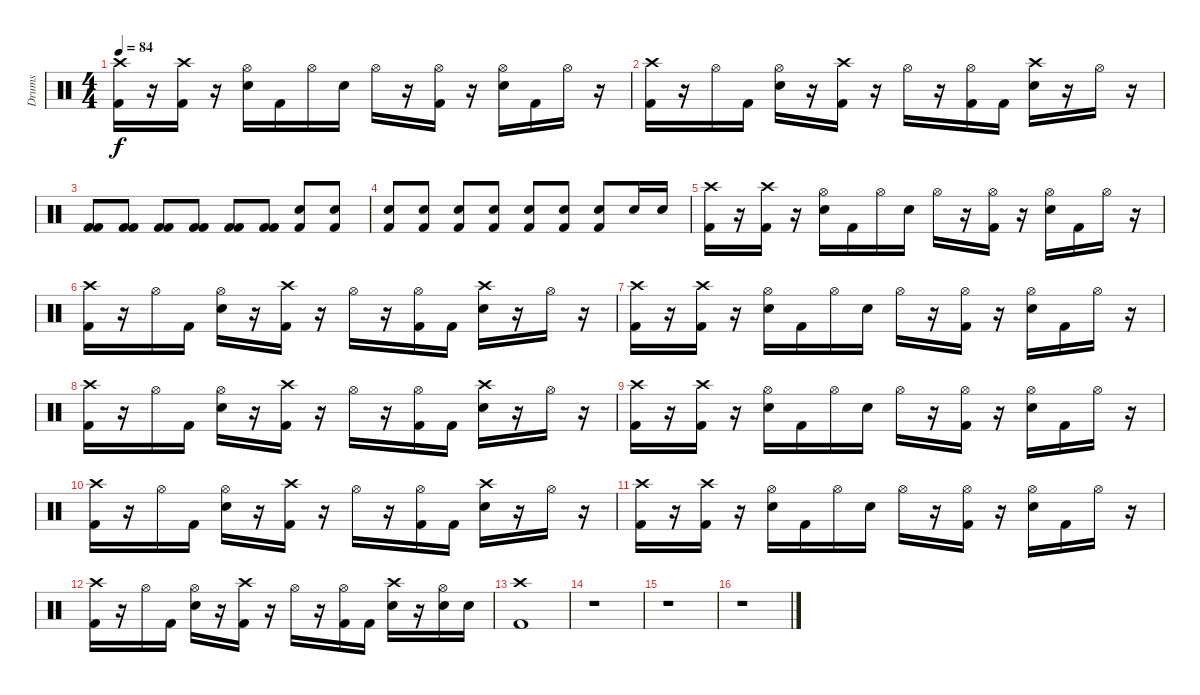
\track ("Drums" "Drums") {instrument percussion}
\staff {score}
\articulation defaults
\ts (4 4)
\tempo 84
\clef neutral
\ks c
("Crash high (hit)" "Kick (hit) 2").16{dy f} r.16 ("Crash high (hit)" "Kick (hit) 2").16 r.16 ("Hi-Hat (open)" "Snare (hit) 2").16 "Kick (hit) 2".16 "Hi-Hat (open)".16 "Snare (hit) 2".16 "Hi-Hat (open)".16 r.16 ("Hi-Hat (open)" "Kick (hit) 2").16 r.16 ("Hi-Hat (open)" "Snare (hit) 2").16 "Kick (hit) 2".16 "Hi-Hat (open)".16 r.16 |
("Crash high (hit)" "Kick (hit) 2").16 r.16 "Hi-Hat (open)".16 "Kick (hit) 2".16 ("Hi-Hat (open)" "Snare (hit) 2").16 r.16 ("Crash high (hit)" "Kick (hit) 2").16 r.16 "Hi-Hat (open)".16 r.16 ("Hi-Hat (open)" "Kick (hit) 2").16 "Kick (hit) 2".16 ("Crash high (hit)" "Snare (hit) 2").16 r.16 "Hi-Hat (open)".16 r.16 |
("Kick (hit) 2" "Kick (hit) 2").8 ("Kick (hit) 2" "Kick (hit) 2").8 ("Kick (hit) 2" "Kick (hit) 2").8 ("Kick (hit) 2" "Kick (hit) 2").8 ("Kick (hit) 2" "Kick (hit) 2").8 ("Kick (hit) 2" "Kick (hit) 2").8 ("Snare (hit) 2" "Kick (hit) 2").8 ("Snare (hit) 2" "Kick (hit) 2").8 |
("Snare (hit) 2" "Kick (hit) 2").8 ("Snare (hit) 2" "Kick (hit) 2").8 ("Snare (hit) 2" "Kick (hit) 2").8 ("Snare (hit) 2" "Kick (hit) 2").8 ("Snare (hit) 2" "Kick (hit) 2").8 ("Snare (hit) 2" "Kick (hit) 2").8 ("Snare (hit) 2" "Kick (hit) 2").8 "Snare (hit) 2".16 "Snare (hit) 2".16 |
("Crash high (hit)" "Kick (hit) 2").16 r.16 ("Crash high (hit)" "Kick (hit) 2").16 r.16 ("Hi-Hat (open)" "Snare (hit) 2").16 "Kick (hit) 2".16 "Hi-Hat (open)".16 "Snare (hit) 2".16 "Hi-Hat (open)".16 r.16 ("Hi-Hat (open)" "Kick (hit) 2").16 r.16 ("Hi-Hat (open)" "Snare (hit) 2").16 "Kick (hit) 2".16 "Hi-Hat (open)".16 r.16 |
("Crash high (hit)" "Kick (hit) 2").16 r.16 "Hi-Hat (open)".16 "Kick (hit) 2".16 ("Hi-Hat (open)" "Snare (hit) 2").16 r.16 ("Crash high (hit)" "Kick (hit) 2").16 r.16 "Hi-Hat (open)".16 r.16 ("Hi-Hat (open)" "Kick (hit) 2").16 "Kick (hit) 2".16 ("Crash high (hit)" "Snare (hit) 2").16 r.16 "Hi-Hat (open)".16 r.16 |
("Crash high (hit)" "Kick (hit) 2").16 r.16 ("Crash high (hit)" "Kick (hit) 2").16 r.16 ("Hi-Hat (open)" "Snare (hit) 2").16 "Kick (hit) 2".16 "Hi-Hat (open)".16 "Snare (hit) 2".16 "Hi-Hat (open)".16 r.16 ("Hi-Hat (open)" "Kick (hit) 2").16 r.16 ("Hi-Hat (open)" "Snare (hit) 2").16 "Kick (hit) 2".16 "Hi-Hat (open)".16 r.16 |
("Crash high (hit)" "Kick (hit) 2").16 r.16 "Hi-Hat (open)".16 "Kick (hit) 2".16 ("Hi-Hat (open)" "Snare (hit) 2").16 r.16 ("Crash high (hit)" "Kick (hit) 2").16 r.16 "Hi-Hat (open)".16 r.16 ("Hi-Hat (open)" "Kick (hit) 2").16 "Kick (hit) 2".16 ("Crash high (hit)" "Snare (hit) 2").16 r.16 "Hi-Hat (open)".16 r.16 |
("Crash high (hit)" "Kick (hit) 2").16 r.16 ("Crash high (hit)" "Kick (hit) 2").16 r.16 ("Hi-Hat (open)" "Snare (hit) 2").16 "Kick (hit) 2".16 "Hi-Hat (open)".16 "Snare (hit) 2".16 "Hi-Hat (open)".16 r.16 ("Hi-Hat (open)" "Kick (hit) 2").16 r.16 ("Hi-Hat (open)" "Snare (hit) 2").16 "Kick (hit) 2".16 "Hi-Hat (open)".16 r.16 |
("Crash high (hit)" "Kick (hit) 2").16 r.16 "Hi-Hat (open)".16 "Kick (hit) 2".16 ("Hi-Hat (open)" "Snare (hit) 2").16 r.16 ("Crash high (hit)" "Kick (hit) 2").16 r.16 "Hi-Hat (open)".16 r.16 ("Hi-Hat (open)" "Kick (hit) 2").16 "Kick (hit) 2".16 ("Crash high (hit)" "Snare (hit) 2").16 r.16 "Hi-Hat (open)".16 r.16 |
("Crash high (hit)" "Kick (hit) 2").16 r.16 ("Crash high (hit)" "Kick (hit) 2").16 r.16 ("Hi-Hat (open)" "Snare (hit) 2").16 "Kick (hit) 2".16 "Hi-Hat (open)".16 "Snare (hit) 2".16 "Hi-Hat (open)".16 r.16 ("Hi-Hat (open)" "Kick (hit) 2").16 r.16 ("Hi-Hat (open)" "Snare (hit) 2").16 "Kick (hit) 2".16 "Hi-Hat (open)".16 r.16 |
("Crash high (hit)" "Kick (hit) 2").16 r.16 "Hi-Hat (open)".16 "Kick (hit) 2".16 ("Hi-Hat (open)" "Snare (hit) 2").16 r.16 ("Crash high (hit)" "Kick (hit) 2").16 r.16 "Hi-Hat (open)".16 r.16 ("Hi-Hat (open)" "Kick (hit) 2").16 "Kick (hit) 2".16 ("Crash high (hit)" "Snare (hit) 2").16 r.16 ("Hi-Hat (open)" "Snare (hit) 2").16 "Snare (hit) 2".16 |
("Crash high (hit)" "Kick (hit) 2").1 |
r.1 |
r.1 |
r.1
